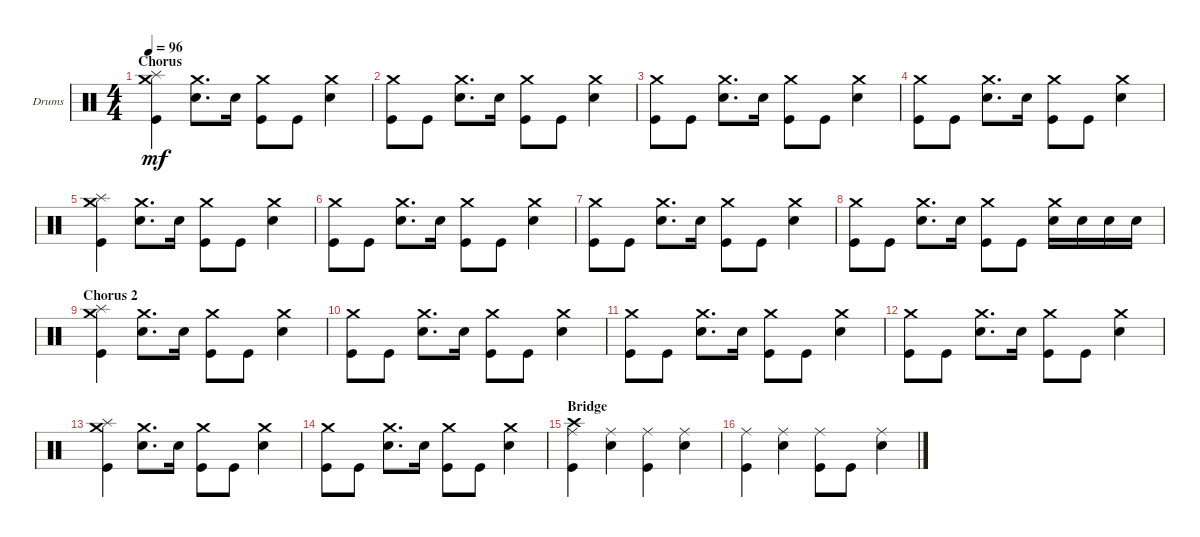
\defaultSystemsLayout 4
\bracketExtendMode groupsimilarinstruments
\firstSystemTrackNameOrientation horizontal
\otherSystemsTrackNameOrientation horizontal
\track ("Tico" "Drums") {instrument percussion}
\staff {score}
\articulation defaults
\ts (4 4)
\section ("" "Chorus")
\tempo 96
\clef neutral
\ks c
("Kick (hit)" "Splash (hit)" "Crash medium (hit)").4{dy mf} ("Snare (hit) 2" "Crash medium (hit)").8{d} "Snare (hit) 2".16 ("Kick (hit)" "Crash medium (hit)").8 "Kick (hit)".8 ("Snare (hit) 2" "Crash medium (hit)").4 |
("Kick (hit)" "Crash medium (hit)").8 "Kick (hit)".8 ("Snare (hit) 2" "Crash medium (hit)").8{d} "Snare (hit) 2".16 ("Kick (hit)" "Crash medium (hit)").8 "Kick (hit)".8 ("Snare (hit) 2" "Crash medium (hit)").4 |
("Kick (hit)" "Crash medium (hit)").8 "Kick (hit)".8 ("Snare (hit) 2" "Crash medium (hit)").8{d} "Snare (hit) 2".16 ("Kick (hit)" "Crash medium (hit)").8 "Kick (hit)".8 ("Snare (hit) 2" "Crash medium (hit)").4 |
("Kick (hit)" "Crash medium (hit)").8 "Kick (hit)".8 ("Snare (hit) 2" "Crash medium (hit)").8{d} "Snare (hit) 2".16 ("Kick (hit)" "Crash medium (hit)").8 "Kick (hit)".8 ("Snare (hit) 2" "Crash medium (hit)").4 |
("Kick (hit)" "Splash (hit)" "Crash medium (hit)").4 ("Snare (hit) 2" "Crash medium (hit)").8{d} "Snare (hit) 2".16 ("Kick (hit)" "Crash medium (hit)").8 "Kick (hit)".8 ("Snare (hit) 2" "Crash medium (hit)").4 |
("Kick (hit)" "Crash medium (hit)").8 "Kick (hit)".8 ("Snare (hit) 2" "Crash medium (hit)").8{d} "Snare (hit) 2".16 ("Kick (hit)" "Crash medium (hit)").8 "Kick (hit)".8 ("Snare (hit) 2" "Crash medium (hit)").4 |
("Kick (hit)" "Crash medium (hit)").8 "Kick (hit)".8 ("Snare (hit) 2" "Crash medium (hit)").8{d} "Snare (hit) 2".16 ("Kick (hit)" "Crash medium (hit)").8 "Kick (hit)".8 ("Snare (hit) 2" "Crash medium (hit)").4 |
("Kick (hit)" "Crash medium (hit)").8 "Kick (hit)".8 ("Snare (hit) 2" "Crash medium (hit)").8{d} "Snare (hit) 2".16 ("Kick (hit)" "Crash medium (hit)").8 "Kick (hit)".8 ("Snare (hit) 2" "Crash medium (hit)").16 "Snare (hit) 2".16 "Snare (hit) 2".16 "Snare (hit) 2".16 |
\section ("" "Chorus 2")
("Kick (hit)" "Splash (hit)" "Crash medium (hit)").4 ("Snare (hit) 2" "Crash medium (hit)").8{d} "Snare (hit) 2".16 ("Kick (hit)" "Crash medium (hit)").8 "Kick (hit)".8 ("Snare (hit) 2" "Crash medium (hit)").4 |
("Kick (hit)" "Crash medium (hit)").8 "Kick (hit)".8 ("Snare (hit) 2" "Crash medium (hit)").8{d} "Snare (hit) 2".16 ("Kick (hit)" "Crash medium (hit)").8 "Kick (hit)".8 ("Snare (hit) 2" "Crash medium (hit)").4 |
("Kick (hit)" "Crash medium (hit)").8 "Kick (hit)".8 ("Snare (hit) 2" "Crash medium (hit)").8{d} "Snare (hit) 2".16 ("Kick (hit)" "Crash medium (hit)").8 "Kick (hit)".8 ("Snare (hit) 2" "Crash medium (hit)").4 |
("Kick (hit)" "Crash medium (hit)").8 "Kick (hit)".8 ("Snare (hit) 2" "Crash medium (hit)").8{d} "Snare (hit) 2".16 ("Kick (hit)" "Crash medium (hit)").8 "Kick (hit)".8 ("Snare (hit) 2" "Crash medium (hit)").4 |
("Kick (hit)" "Splash (hit)" "Crash medium (hit)").4 ("Snare (hit) 2" "Crash medium (hit)").8{d} "Snare (hit) 2".16 ("Kick (hit)" "Crash medium (hit)").8 "Kick (hit)".8 ("Snare (hit) 2" "Crash medium (hit)").4 |
("Kick (hit)" "Crash medium (hit)").8 "Kick (hit)".8 ("Snare (hit) 2" "Crash medium (hit)").8{d} "Snare (hit) 2".16 ("Kick (hit)" "Crash medium (hit)").8 "Kick (hit)".8 ("Snare (hit) 2" "Crash medium (hit)").4 |
\section ("" "Bridge")
("Kick (hit)" "Ride (middle)" "Crash high (hit)").4 ("Snare (hit) 2" "Ride (middle)").4 ("Ride (middle)" "Kick (hit)").4 ("Ride (middle)" "Snare (hit) 2").4 |
("Kick (hit)" "Ride (middle)").4 ("Snare (hit) 2" "Ride (middle)").4 ("Ride (middle)" "Kick (hit)").8 "Kick (hit)".8 ("Ride (middle)" "Snare (hit) 2").4
